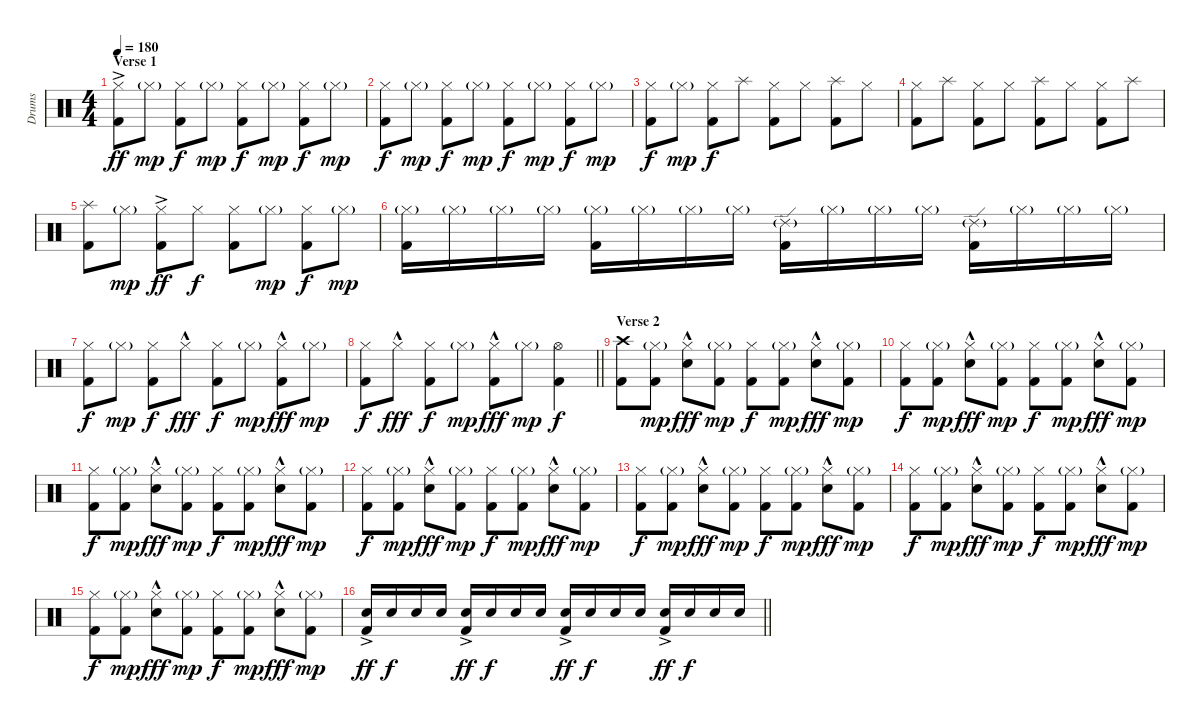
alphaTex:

\track ("Drums" "Drums") {instrument percussion}
\staff {score}
\articulation defaults
\ts (4 4)
\section ("" "Verse 1")
\tempo 180
\clef neutral
\ks c
("Hi-Hat (closed)"{ac} "Kick (hit) 2").8{dy ff} "Hi-Hat (closed)"{g}.8{dy mp} ("Hi-Hat (closed)" "Kick (hit) 2").8{dy f} "Hi-Hat (closed)"{g}.8{dy mp} ("Hi-Hat (closed)" "Kick (hit) 2").8{dy f} "Hi-Hat (closed)"{g}.8{dy mp} ("Hi-Hat (closed)" "Kick (hit) 2").8{dy f} "Hi-Hat (closed)"{g}.8{dy mp} |
("Hi-Hat (closed)" "Kick (hit) 2").8{dy f} "Hi-Hat (closed)"{g}.8{dy mp} ("Hi-Hat (closed)" "Kick (hit) 2").8{dy f} "Hi-Hat (closed)"{g}.8{dy mp} ("Hi-Hat (closed)" "Kick (hit) 2").8{dy f} "Hi-Hat (closed)"{g}.8{dy mp} ("Hi-Hat (closed)" "Kick (hit) 2").8{dy f} "Hi-Hat (closed)"{g}.8{dy mp} |
("Hi-Hat (closed)" "Kick (hit) 2").8{dy f} "Hi-Hat (closed)"{g}.8{dy mp} ("Hi-Hat (closed)" "Kick (hit) 2").8{dy f} "Splash (hit)".8 ("Hi-Hat (closed)" "Kick (hit) 2").8 "Hi-Hat (closed)".8 ("Splash (hit)" "Kick (hit) 2").8 "Hi-Hat (closed)".8 |
("Hi-Hat (closed)" "Kick (hit) 2").8 "Splash (hit)".8 ("Hi-Hat (closed)" "Kick (hit) 2").8 "Hi-Hat (closed)".8 ("Splash (hit)" "Kick (hit) 2").8 "Hi-Hat (closed)".8 ("Hi-Hat (closed)" "Kick (hit) 2").8 "Splash (hit)".8 |
("Splash (hit)" "Kick (hit) 2").8 "Hi-Hat (closed)"{g}.8{dy mp} ("Hi-Hat (closed)"{ac} "Kick (hit) 2").8{dy ff} "Hi-Hat (closed)".8{dy f} ("Hi-Hat (closed)" "Kick (hit) 2").8 "Hi-Hat (closed)"{g}.8{dy mp} ("Hi-Hat (closed)" "Kick (hit) 2").8{dy f} "Hi-Hat (closed)"{g}.8{dy mp} |
("Hi-Hat (closed)"{g} "Kick (hit) 2").16 "Hi-Hat (closed)"{g}.16 "Hi-Hat (closed)"{g}.16 "Hi-Hat (closed)"{g}.16 ("Hi-Hat (closed)"{g} "Kick (hit) 2").16 "Hi-Hat (closed)"{g}.16 "Hi-Hat (closed)"{g}.16 "Hi-Hat (closed)"{g}.16 ("Ride (edge) 2"{g} "Kick (hit) 2").16 "Hi-Hat (closed)"{g}.16 "Hi-Hat (closed)"{g}.16 "Hi-Hat (closed)"{g}.16 ("Ride (edge) 2"{g} "Kick (hit) 2").16 "Hi-Hat (closed)"{g}.16 "Hi-Hat (closed)"{g}.16 "Hi-Hat (closed)"{g}.16 |
("Hi-Hat (closed)" "Kick (hit) 2").8{dy f} "Hi-Hat (closed)"{g}.8{dy mp} ("Hi-Hat (closed)" "Kick (hit) 2").8{dy f} "Hi-Hat (closed)"{hac}.8{dy fff} ("Hi-Hat (closed)" "Kick (hit) 2").8{dy f} "Hi-Hat (closed)"{g}.8{dy mp} ("Hi-Hat (closed)"{hac} "Kick (hit) 2").8{dy fff} "Hi-Hat (closed)"{g}.8{dy mp} |
\barLineRight lightlight
("Hi-Hat (closed)" "Kick (hit) 2").8{dy f} "Hi-Hat (closed)"{hac}.8{dy fff} ("Hi-Hat (closed)" "Kick (hit) 2").8{dy f} "Hi-Hat (closed)"{g}.8{dy mp} ("Hi-Hat (closed)"{hac} "Kick (hit) 2").8{dy fff} "Hi-Hat (closed)"{g}.8{dy mp} ("Hi-Hat (open)" "Kick (hit) 2").4{dy f} |
\section ("" "Verse 2")
("Crash high (hit)" "Kick (hit) 2").8 ("Hi-Hat (closed)"{g} "Kick (hit) 2").8{dy mp} ("Hi-Hat (closed)"{hac} "Electric Snare (hit)").8{dy fff} ("Hi-Hat (closed)"{g} "Kick (hit) 2").8{dy mp} ("Hi-Hat (closed)" "Kick (hit) 2").8{dy f} ("Hi-Hat (closed)"{g} "Kick (hit) 2").8{dy mp} ("Hi-Hat (closed)"{hac} "Electric Snare (hit)").8{dy fff} ("Hi-Hat (closed)"{g} "Kick (hit) 2").8{dy mp} |
("Hi-Hat (closed)" "Kick (hit) 2").8{dy f} ("Hi-Hat (closed)"{g} "Kick (hit) 2").8{dy mp} ("Hi-Hat (closed)"{hac} "Electric Snare (hit)").8{dy fff} ("Hi-Hat (closed)"{g} "Kick (hit) 2").8{dy mp} ("Hi-Hat (closed)" "Kick (hit) 2").8{dy f} ("Hi-Hat (closed)"{g} "Kick (hit) 2").8{dy mp} ("Hi-Hat (closed)"{hac} "Electric Snare (hit)").8{dy fff} ("Hi-Hat (closed)"{g} "Kick (hit) 2").8{dy mp} |
("Hi-Hat (closed)" "Kick (hit) 2").8{dy f} ("Hi-Hat (closed)"{g} "Kick (hit) 2").8{dy mp} ("Hi-Hat (closed)"{hac} "Electric Snare (hit)").8{dy fff} ("Hi-Hat (closed)"{g} "Kick (hit) 2").8{dy mp} ("Hi-Hat (closed)" "Kick (hit) 2").8{dy f} ("Hi-Hat (closed)"{g} "Kick (hit) 2").8{dy mp} ("Hi-Hat (closed)"{hac} "Electric Snare (hit)").8{dy fff} ("Hi-Hat (closed)"{g} "Kick (hit) 2").8{dy mp} |
("Hi-Hat (closed)" "Kick (hit) 2").8{dy f} ("Hi-Hat (closed)"{g} "Kick (hit) 2").8{dy mp} ("Hi-Hat (closed)"{hac} "Electric Snare (hit)").8{dy fff} ("Hi-Hat (closed)"{g} "Kick (hit) 2").8{dy mp} ("Hi-Hat (closed)" "Kick (hit) 2").8{dy f} ("Hi-Hat (closed)"{g} "Kick (hit) 2").8{dy mp} ("Hi-Hat (closed)"{hac} "Electric Snare (hit)").8{dy fff} ("Hi-Hat (closed)"{g} "Kick (hit) 2").8{dy mp} |
("Hi-Hat (closed)" "Kick (hit) 2").8{dy f} ("Hi-Hat (closed)"{g} "Kick (hit) 2").8{dy mp} ("Hi-Hat (closed)"{hac} "Electric Snare (hit)").8{dy fff} ("Hi-Hat (closed)"{g} "Kick (hit) 2").8{dy mp} ("Hi-Hat (closed)" "Kick (hit) 2").8{dy f} ("Hi-Hat (closed)"{g} "Kick (hit) 2").8{dy mp} ("Hi-Hat (closed)"{hac} "Electric Snare (hit)").8{dy fff} ("Hi-Hat (closed)"{g} "Kick (hit) 2").8{dy mp} |
("Hi-Hat (closed)" "Kick (hit) 2").8{dy f} ("Hi-Hat (closed)"{g} "Kick (hit) 2").8{dy mp} ("Hi-Hat (closed)"{hac} "Electric Snare (hit)").8{dy fff} ("Hi-Hat (closed)"{g} "Kick (hit) 2").8{dy mp} ("Hi-Hat (closed)" "Kick (hit) 2").8{dy f} ("Hi-Hat (closed)"{g} "Kick (hit) 2").8{dy mp} ("Hi-Hat (closed)"{hac} "Electric Snare (hit)").8{dy fff} ("Hi-Hat (closed)"{g} "Kick (hit) 2").8{dy mp} |
("Hi-Hat (closed)" "Kick (hit) 2").8{dy f} ("Hi-Hat (closed)"{g} "Kick (hit) 2").8{dy mp} ("Hi-Hat (closed)"{hac} "Electric Snare (hit)").8{dy fff} ("Hi-Hat (closed)"{g} "Kick (hit) 2").8{dy mp} ("Hi-Hat (closed)" "Kick (hit) 2").8{dy f} ("Hi-Hat (closed)"{g} "Kick (hit) 2").8{dy mp} ("Hi-Hat (closed)"{hac} "Electric Snare (hit)").8{dy fff} ("Hi-Hat (closed)"{g} "Kick (hit) 2").8{dy mp} |
\barLineRight lightlight
("Electric Snare (hit)"{ac} "Kick (hit) 2").16{dy ff} "Electric Snare (hit)".16{dy f} "Electric Snare (hit)".16 "Electric Snare (hit)".16 ("Electric Snare (hit)"{ac} "Kick (hit) 2").16{dy ff} "Electric Snare (hit)".16{dy f} "Electric Snare (hit)".16 "Electric Snare (hit)".16 ("Electric Snare (hit)"{ac} "Kick (hit) 2").16{dy ff} "Electric Snare (hit)".16{dy f} "Electric Snare (hit)".16 "Electric Snare (hit)".16 ("Electric Snare (hit)"{ac} "Kick (hit) 2").16{dy ff} "Electric Snare (hit)".16{dy f} "Electric Snare (hit)".16 "Electric Snare (hit)".16
